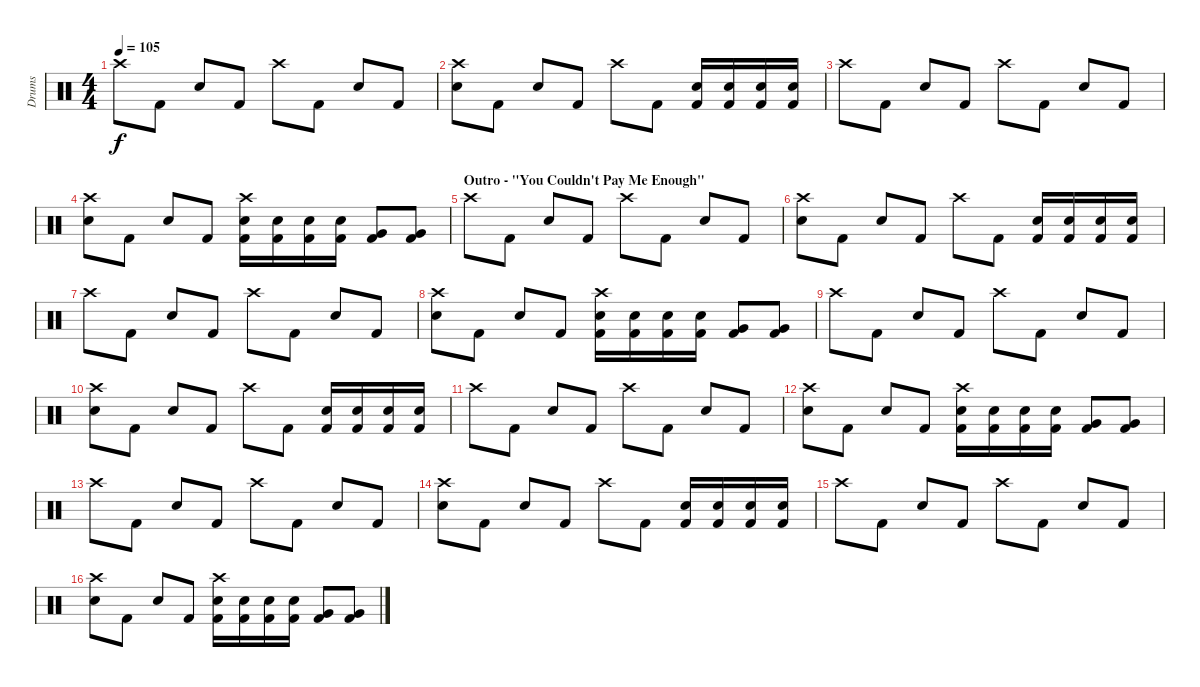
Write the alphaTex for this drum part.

\track ("Drums" "Drums") {instrument percussion}
\staff {score}
\articulation defaults
\ts (4 4)
\tempo 105
\clef neutral
\ks c "Crash high (hit)".8{dy f} "Kick (hit) 2".8 "Snare (hit) 2".8 "Kick (hit) 2".8 "Crash high (hit)".8 "Kick (hit) 2".8 "Snare (hit) 2".8 "Kick (hit) 2".8
|
("Crash high (hit)" "Snare (hit) 2").8 "Kick (hit) 2".8 "Snare (hit) 2".8 "Kick (hit) 2".8 "Crash high (hit)".8 "Kick (hit) 2".8 ("Snare (hit) 2" "Kick (hit) 2").16 ("Snare (hit) 2" "Kick (hit) 2").16 ("Snare (hit) 2" "Kick (hit) 2").16 ("Snare (hit) 2" "Kick (hit) 2").16 |
"Crash high (hit)".8 "Kick (hit) 2".8 "Snare (hit) 2".8 "Kick (hit) 2".8 "Crash high (hit)".8 "Kick (hit) 2".8 "Snare (hit) 2".8 "Kick (hit) 2".8 |
("Crash high (hit)" "Snare (hit) 2").8 "Kick (hit) 2".8 "Snare (hit) 2".8 "Kick (hit) 2".8 ("Crash high (hit)" "Snare (hit) 2" "Kick (hit) 2").16 ("Snare (hit) 2" "Kick (hit) 2").16 ("Snare (hit) 2" "Kick (hit) 2").16 ("Snare (hit) 2" "Kick (hit) 2").16 ("Very Low Tom (hit)" "Kick (hit) 2").8 ("Very Low Tom (hit)" "Kick (hit) 2").8 |
\section ("" "Outro - \"You Couldn't Pay Me Enough\"")
"Crash high (hit)".8 "Kick (hit) 2".8 "Snare (hit) 2".8 "Kick (hit) 2".8 "Crash high (hit)".8 "Kick (hit) 2".8 "Snare (hit) 2".8 "Kick (hit) 2".8 |
("Crash high (hit)" "Snare (hit) 2").8 "Kick (hit) 2".8 "Snare (hit) 2".8 "Kick (hit) 2".8 "Crash high (hit)".8 "Kick (hit) 2".8 ("Snare (hit) 2" "Kick (hit) 2").16 ("Snare (hit) 2" "Kick (hit) 2").16 ("Snare (hit) 2" "Kick (hit) 2").16 ("Snare (hit) 2" "Kick (hit) 2").16 |
"Crash high (hit)".8 "Kick (hit) 2".8 "Snare (hit) 2".8 "Kick (hit) 2".8 "Crash high (hit)".8 "Kick (hit) 2".8 "Snare (hit) 2".8 "Kick (hit) 2".8 |
("Crash high (hit)" "Snare (hit) 2").8 "Kick (hit) 2".8 "Snare (hit) 2".8 "Kick (hit) 2".8 ("Crash high (hit)" "Snare (hit) 2" "Kick (hit) 2").16 ("Snare (hit) 2" "Kick (hit) 2").16 ("Snare (hit) 2" "Kick (hit) 2").16 ("Snare (hit) 2" "Kick (hit) 2").16 ("Very Low Tom (hit)" "Kick (hit) 2").8 ("Very Low Tom (hit)" "Kick (hit) 2").8 |
"Crash high (hit)".8 "Kick (hit) 2".8 "Snare (hit) 2".8 "Kick (hit) 2".8 "Crash high (hit)".8 "Kick (hit) 2".8 "Snare (hit) 2".8 "Kick (hit) 2".8 |
("Crash high (hit)" "Snare (hit) 2").8 "Kick (hit) 2".8 "Snare (hit) 2".8 "Kick (hit) 2".8 "Crash high (hit)".8 "Kick (hit) 2".8 ("Snare (hit) 2" "Kick (hit) 2").16 ("Snare (hit) 2" "Kick (hit) 2").16 ("Snare (hit) 2" "Kick (hit) 2").16 ("Snare (hit) 2" "Kick (hit) 2").16 |
"Crash high (hit)".8 "Kick (hit) 2".8 "Snare (hit) 2".8 "Kick (hit) 2".8 "Crash high (hit)".8 "Kick (hit) 2".8 "Snare (hit) 2".8 "Kick (hit) 2".8 |
("Crash high (hit)" "Snare (hit) 2").8 "Kick (hit) 2".8 "Snare (hit) 2".8 "Kick (hit) 2".8 ("Crash high (hit)" "Snare (hit) 2" "Kick (hit) 2").16 ("Snare (hit) 2" "Kick (hit) 2").16 ("Snare (hit) 2" "Kick (hit) 2").16 ("Snare (hit) 2" "Kick (hit) 2").16 ("Very Low Tom (hit)" "Kick (hit) 2").8 ("Very Low Tom (hit)" "Kick (hit) 2").8 |
"Crash high (hit)".8 "Kick (hit) 2".8 "Snare (hit) 2".8 "Kick (hit) 2".8 "Crash high (hit)".8 "Kick (hit) 2".8 "Snare (hit) 2".8 "Kick (hit) 2".8 |
("Crash high (hit)" "Snare (hit) 2").8 "Kick (hit) 2".8 "Snare (hit) 2".8 "Kick (hit) 2".8 "Crash high (hit)".8 "Kick (hit) 2".8 ("Snare (hit) 2" "Kick (hit) 2").16 ("Snare (hit) 2" "Kick (hit) 2").16 ("Snare (hit) 2" "Kick (hit) 2").16 ("Snare (hit) 2" "Kick (hit) 2").16 |
"Crash high (hit)".8 "Kick (hit) 2".8 "Snare (hit) 2".8 "Kick (hit) 2".8 "Crash high (hit)".8 "Kick (hit) 2".8 "Snare (hit) 2".8 "Kick (hit) 2".8 |
("Crash high (hit)" "Snare (hit) 2").8 "Kick (hit) 2".8 "Snare (hit) 2".8 "Kick (hit) 2".8 ("Crash high (hit)" "Snare (hit) 2" "Kick (hit) 2").16 ("Snare (hit) 2" "Kick (hit) 2").16 ("Snare (hit) 2" "Kick (hit) 2").16 ("Snare (hit) 2" "Kick (hit) 2").16 ("Very Low Tom (hit)" "Kick (hit) 2").8 ("Very Low Tom (hit)" "Kick (hit) 2").8
